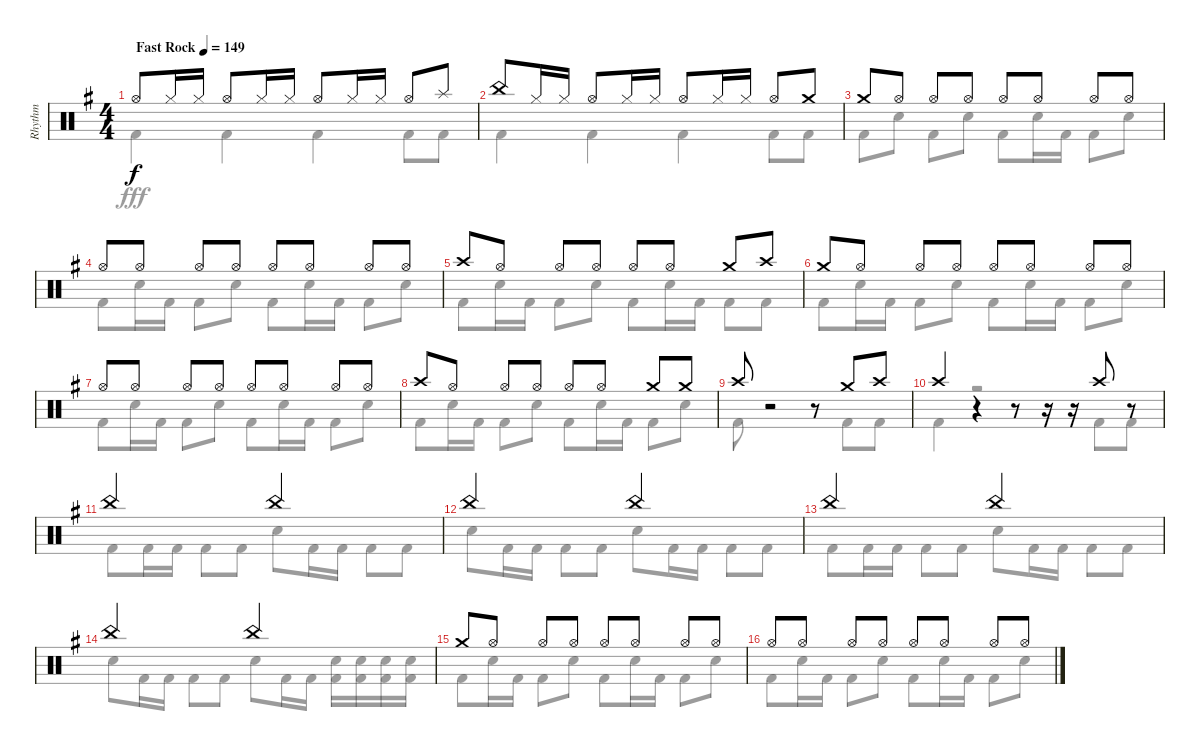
\track ("Rhythm" "Rhythm") {instrument percussion}
\staff {score}
\articulation defaults
\voice
\ts (4 4)
\tempo (149 "Fast Rock")
\clef neutral
\ks eminor "Hi-Hat (open)".8{dy f} "Hi-Hat (closed)".16 "Hi-Hat (closed)".16 "Hi-Hat (open)".8 "Hi-Hat (closed)".16 "Hi-Hat (closed)".16 "Hi-Hat (open)".8 "Hi-Hat (closed)".16 "Hi-Hat (closed)".16 "Hi-Hat (open)".8 "Splash (hit)".8
|
"China (hit)".8 "Hi-Hat (closed)".16 "Hi-Hat (closed)".16 "Hi-Hat (open)".8 "Hi-Hat (closed)".16 "Hi-Hat (closed)".16 "Hi-Hat (open)".8 "Hi-Hat (closed)".16 "Hi-Hat (closed)".16 "Hi-Hat (open)".8 "Crash medium (hit)".8 |
"Crash medium (hit)".8 "Hi-Hat (open)".8 "Hi-Hat (open)".8 "Hi-Hat (open)".8 "Hi-Hat (open)".8 "Hi-Hat (open)".8 "Hi-Hat (open)".8 "Hi-Hat (open)".8 |
"Hi-Hat (open)".8 "Hi-Hat (open)".8 "Hi-Hat (open)".8 "Hi-Hat (open)".8 "Hi-Hat (open)".8 "Hi-Hat (open)".8 "Hi-Hat (open)".8 "Hi-Hat (open)".8 |
"Crash high (hit)".8 "Hi-Hat (open)".8 "Hi-Hat (open)".8 "Hi-Hat (open)".8 "Hi-Hat (open)".8 "Hi-Hat (open)".8 "Crash medium (hit)".8 "Crash high (hit)".8 |
"Crash medium (hit)".8 "Hi-Hat (open)".8 "Hi-Hat (open)".8 "Hi-Hat (open)".8 "Hi-Hat (open)".8 "Hi-Hat (open)".8 "Hi-Hat (open)".8 "Hi-Hat (open)".8 |
"Hi-Hat (open)".8 "Hi-Hat (open)".8 "Hi-Hat (open)".8 "Hi-Hat (open)".8 "Hi-Hat (open)".8 "Hi-Hat (open)".8 "Hi-Hat (open)".8 "Hi-Hat (open)".8 |
"Crash high (hit)".8 "Hi-Hat (open)".8 "Hi-Hat (open)".8 "Hi-Hat (open)".8 "Hi-Hat (open)".8 "Hi-Hat (open)".8 "Crash medium (hit)".8 "Crash medium (hit)".8 |
"Crash high (hit)".8{volume 0} r.2 r.8 "Crash medium (hit)".8{volume 13} "Crash high (hit)".8 |
"Crash high (hit)".4{volume 0} r.4 r.8 r.16 r.16{volume 13} "Crash high (hit)".8{volume 0} r.8 |
"China (hit)".2{volume 13} "China (hit)".2 |
"China (hit)".2 "China (hit)".2 |
"China (hit)".2 "China (hit)".2 |
"China (hit)".2 "China (hit)".2 |
"Crash medium (hit)".8 "Hi-Hat (open)".8 "Hi-Hat (open)".8 "Hi-Hat (open)".8 "Hi-Hat (open)".8 "Hi-Hat (open)".8 "Hi-Hat (open)".8 "Hi-Hat (open)".8 |
"Hi-Hat (open)".8 "Hi-Hat (open)".8 "Hi-Hat (open)".8 "Hi-Hat (open)".8 "Hi-Hat (open)".8 "Hi-Hat (open)".8 "Hi-Hat (open)".8 "Hi-Hat (open)".8
\voice
\clef neutral
\ottava regular
\simile none
\ks eminor "Kick (hit) 2".4{dy fff} "Kick (hit) 2".4 "Kick (hit) 2".4 "Kick (hit) 2".8 "Kick (hit) 2".8
|
"Kick (hit) 2".4 "Kick (hit) 2".4 "Kick (hit) 2".4 "Kick (hit) 2".8 "Kick (hit) 2".8 |
"Kick (hit) 2".8 "Snare (hit) 2".8 "Kick (hit) 2".8 "Snare (hit) 2".8 "Kick (hit) 2".8 "Snare (hit) 2".16 "Kick (hit) 2".16 "Kick (hit) 2".8 "Snare (hit) 2".8 |
"Kick (hit) 2".8 "Snare (hit) 2".16 "Kick (hit) 2".16 "Kick (hit) 2".8 "Snare (hit) 2".8 "Kick (hit) 2".8 "Snare (hit) 2".16 "Kick (hit) 2".16 "Kick (hit) 2".8 "Snare (hit) 2".8 |
"Kick (hit) 2".8 "Snare (hit) 2".16 "Kick (hit) 2".16 "Kick (hit) 2".8 "Snare (hit) 2".8 "Kick (hit) 2".8 "Snare (hit) 2".16 "Kick (hit) 2".16 "Kick (hit) 2".8 "Kick (hit) 2".8 |
"Kick (hit) 2".8 "Snare (hit) 2".16 "Kick (hit) 2".16 "Kick (hit) 2".8 "Snare (hit) 2".8 "Kick (hit) 2".8 "Snare (hit) 2".16 "Kick (hit) 2".16 "Kick (hit) 2".8 "Snare (hit) 2".8 |
"Kick (hit) 2".8 "Snare (hit) 2".16 "Kick (hit) 2".16 "Kick (hit) 2".8 "Snare (hit) 2".8 "Kick (hit) 2".8 "Snare (hit) 2".16 "Kick (hit) 2".16 "Kick (hit) 2".8 "Snare (hit) 2".8 |
"Kick (hit) 2".8 "Snare (hit) 2".16 "Kick (hit) 2".16 "Kick (hit) 2".8 "Snare (hit) 2".8 "Kick (hit) 2".8 "Snare (hit) 2".16 "Kick (hit) 2".16 "Kick (hit) 2".8 "Snare (hit) 2".8 |
"Kick (hit) 2".8 r.2 r.8 "Kick (hit) 2".8 "Kick (hit) 2".8 |
"Kick (hit) 2".4 r.2 "Kick (hit) 2".8 "Kick (hit) 2".8 |
"Kick (hit) 2".8 "Kick (hit) 2".16 "Kick (hit) 2".16 "Kick (hit) 2".8 "Kick (hit) 2".8 "Snare (hit) 2".8 "Kick (hit) 2".16 "Kick (hit) 2".16 "Kick (hit) 2".8 "Kick (hit) 2".8 |
"Snare (hit) 2".8 "Kick (hit) 2".16 "Kick (hit) 2".16 "Kick (hit) 2".8 "Kick (hit) 2".8 "Snare (hit) 2".8 "Kick (hit) 2".16 "Kick (hit) 2".16 "Kick (hit) 2".8 "Kick (hit) 2".8 |
"Kick (hit) 2".8 "Kick (hit) 2".16 "Kick (hit) 2".16 "Kick (hit) 2".8 "Kick (hit) 2".8 "Snare (hit) 2".8 "Kick (hit) 2".16 "Kick (hit) 2".16 "Kick (hit) 2".8 "Kick (hit) 2".8 |
"Snare (hit) 2".8 "Kick (hit) 2".16 "Kick (hit) 2".16 "Kick (hit) 2".8 "Kick (hit) 2".8 "Snare (hit) 2".8 "Kick (hit) 2".16 "Kick (hit) 2".16 ("Snare (hit) 2" "Kick (hit) 2").16 ("Snare (hit) 2" "Kick (hit) 2").16 ("Snare (hit) 2" "Kick (hit) 2").16 ("Snare (hit) 2" "Kick (hit) 2").16 |
"Kick (hit) 2".8 "Snare (hit) 2".16 "Kick (hit) 2".16 "Kick (hit) 2".8 "Snare (hit) 2".8 "Kick (hit) 2".8 "Snare (hit) 2".16 "Kick (hit) 2".16 "Kick (hit) 2".8 "Snare (hit) 2".8 |
"Kick (hit) 2".8 "Snare (hit) 2".16 "Kick (hit) 2".16 "Kick (hit) 2".8 "Snare (hit) 2".8 "Kick (hit) 2".8 "Snare (hit) 2".16 "Kick (hit) 2".16 "Kick (hit) 2".8 "Snare (hit) 2".8
